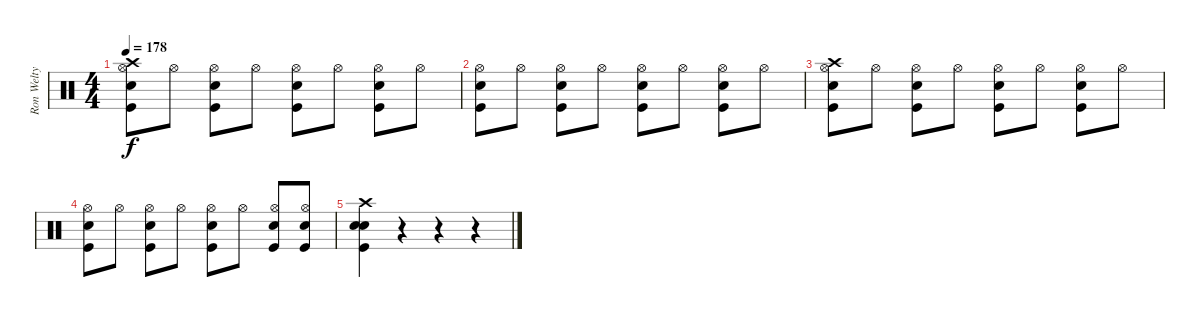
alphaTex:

\track ("Ron Welty" "Ron Welty") {instrument percussion}
\staff {score}
\articulation defaults
\ts (4 4)
\tempo 178
\clef neutral
\ks c
("Crash high (hit)" "Electric Snare (hit)" "Hi-Hat (open)" "Kick (hit)").8{dy f} "Hi-Hat (open)".8 ("Electric Snare (hit)" "Hi-Hat (open)" "Kick (hit)").8 "Hi-Hat (open)".8 ("Electric Snare (hit)" "Hi-Hat (open)" "Kick (hit)").8 "Hi-Hat (open)".8 ("Electric Snare (hit)" "Hi-Hat (open)" "Kick (hit)").8 "Hi-Hat (open)".8 |
("Electric Snare (hit)" "Hi-Hat (open)" "Kick (hit)").8 "Hi-Hat (open)".8 ("Electric Snare (hit)" "Hi-Hat (open)" "Kick (hit)").8 "Hi-Hat (open)".8 ("Electric Snare (hit)" "Hi-Hat (open)" "Kick (hit)").8 "Hi-Hat (open)".8 ("Electric Snare (hit)" "Hi-Hat (open)" "Kick (hit)").8 "Hi-Hat (open)".8 |
("Crash high (hit)" "Electric Snare (hit)" "Hi-Hat (open)" "Kick (hit)").8 "Hi-Hat (open)".8 ("Electric Snare (hit)" "Hi-Hat (open)" "Kick (hit)").8 "Hi-Hat (open)".8 ("Electric Snare (hit)" "Hi-Hat (open)" "Kick (hit)").8 "Hi-Hat (open)".8 ("Electric Snare (hit)" "Hi-Hat (open)" "Kick (hit)").8 "Hi-Hat (open)".8 |
("Electric Snare (hit)" "Hi-Hat (open)" "Kick (hit)").8 "Hi-Hat (open)".8 ("Electric Snare (hit)" "Hi-Hat (open)" "Kick (hit)").8 "Hi-Hat (open)".8 ("Electric Snare (hit)" "Hi-Hat (open)" "Kick (hit)").8 "Hi-Hat (open)".8 ("Electric Snare (hit)" "Hi-Hat (open)" "Kick (hit)").8 ("Electric Snare (hit)" "Hi-Hat (open)" "Kick (hit)").8 |
("Electric Snare (hit)" "Crash high (hit)" "Kick (hit)" "Snare (hit) 2").4 r.4 r.4 r.4
